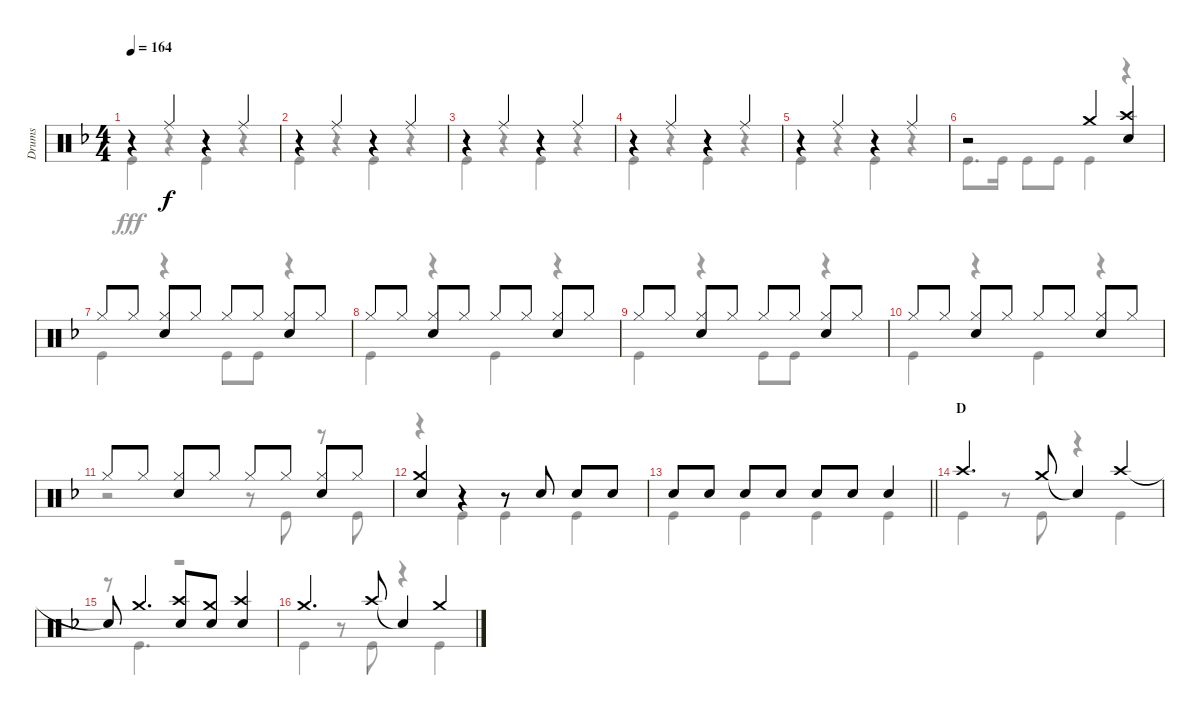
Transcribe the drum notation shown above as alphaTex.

\track ("Drums" "Drums") {instrument percussion}
\staff {score}
\articulation defaults
\voice
\ts (4 4)
\tempo 164
\clef neutral
\ks f
r.4{dy f} "Ride (middle)".4 r.4 "Ride (middle)".4 |
r.4 "Ride (middle)".4 r.4 "Ride (middle)".4 |
r.4 "Ride (middle)".4 r.4 "Ride (middle)".4 |
r.4 "Ride (middle)".4 r.4 "Ride (middle)".4 |
r.4 "Ride (middle)".4 r.4 "Ride (middle)".4 |
r.2 "Crash medium (hit)".4 ("Crash high (hit)" "Snare (hit) 2").4 |
"Hi-Hat (closed)".8 "Hi-Hat (closed)".8 ("Hi-Hat (closed)" "Snare (hit) 2").8 "Hi-Hat (closed)".8 "Hi-Hat (closed)".8 "Hi-Hat (closed)".8 ("Hi-Hat (closed)" "Snare (hit) 2").8 "Hi-Hat (closed)".8 |
"Hi-Hat (closed)".8 "Hi-Hat (closed)".8 ("Hi-Hat (closed)" "Snare (hit) 2").8 "Hi-Hat (closed)".8 "Hi-Hat (closed)".8 "Hi-Hat (closed)".8 ("Hi-Hat (closed)" "Snare (hit) 2").8 "Hi-Hat (closed)".8 |
"Hi-Hat (closed)".8 "Hi-Hat (closed)".8 ("Hi-Hat (closed)" "Snare (hit) 2").8 "Hi-Hat (closed)".8 "Hi-Hat (closed)".8 "Hi-Hat (closed)".8 ("Hi-Hat (closed)" "Snare (hit) 2").8 "Hi-Hat (closed)".8 |
"Hi-Hat (closed)".8 "Hi-Hat (closed)".8 ("Hi-Hat (closed)" "Snare (hit) 2").8 "Hi-Hat (closed)".8 "Hi-Hat (closed)".8 "Hi-Hat (closed)".8 ("Hi-Hat (closed)" "Snare (hit) 2").8 "Hi-Hat (closed)".8 |
"Hi-Hat (closed)".8 "Hi-Hat (closed)".8 ("Hi-Hat (closed)" "Snare (hit) 2").8 "Hi-Hat (closed)".8 "Hi-Hat (closed)".8 "Hi-Hat (closed)".8 ("Hi-Hat (closed)" "Snare (hit) 2").8 "Hi-Hat (closed)".8 |
("Crash medium (hit)" "Snare (hit) 2").4 r.4 r.8 "Snare (hit) 2".8 "Snare (hit) 2".8 "Snare (hit) 2".8 |
\barLineRight lightlight "Snare (hit) 2".8 "Snare (hit) 2".8 "Snare (hit) 2".8 "Snare (hit) 2".8 "Snare (hit) 2".8 "Snare (hit) 2".8 "Snare (hit) 2".4
|
\section ("" "D")
"Crash high (hit)".4{d} "Crash medium (hit)".8 "Snare (hit)"{t}.4 "Crash high (hit)".4 |
"Snare (hit)"{t}.8 "Crash medium (hit)".4{d} ("Crash high (hit)" "Snare (hit) 2").8 ("Crash medium (hit)" "Snare (hit) 2").8 ("Crash high (hit)" "Snare (hit) 2").4 |
"Crash medium (hit)".4{d} "Crash high (hit)".8 "Snare (hit)"{t}.4 "Crash medium (hit)".4
\voice
\clef neutral
\ottava regular
\simile none
\ks f "Kick (hit)".4{dy fff}
r.4 "Kick (hit)".4 r.4 |
"Kick (hit)".4 r.4 "Kick (hit)".4 r.4 |
"Kick (hit)".4 r.4 "Kick (hit)".4 r.4 |
"Kick (hit)".4 r.4 "Kick (hit)".4 r.4 |
"Kick (hit)".4 r.4 "Kick (hit)".4 r.4 |
"Kick (hit)".8{d} "Kick (hit)".16 "Kick (hit)".8 "Kick (hit)".8 "Kick (hit)".4 r.4 |
"Kick (hit)".4 r.4 "Kick (hit)".8 "Kick (hit)".8 r.4 |
"Kick (hit)".4 r.4 "Kick (hit)".4 r.4 |
"Kick (hit)".4 r.4 "Kick (hit)".8 "Kick (hit)".8 r.4 |
"Kick (hit)".4 r.4 "Kick (hit)".4 r.4 |
r.2 r.8 "Kick (hit)".8 r.8 "Kick (hit)".8 |
r.4 "Kick (hit)".4 "Kick (hit)".4 "Kick (hit)".4 |
\barLineRight lightlight "Kick (hit)".4 "Kick (hit)".4 "Kick (hit)".4 "Kick (hit)".4
|
"Kick (hit)".4 r.8 "Kick (hit)".8 r.4 "Kick (hit)".4 |
r.8 "Kick (hit)".4{d} r.2 |
"Kick (hit)".4 r.8 "Kick (hit)".8 r.4 "Kick (hit)".4
